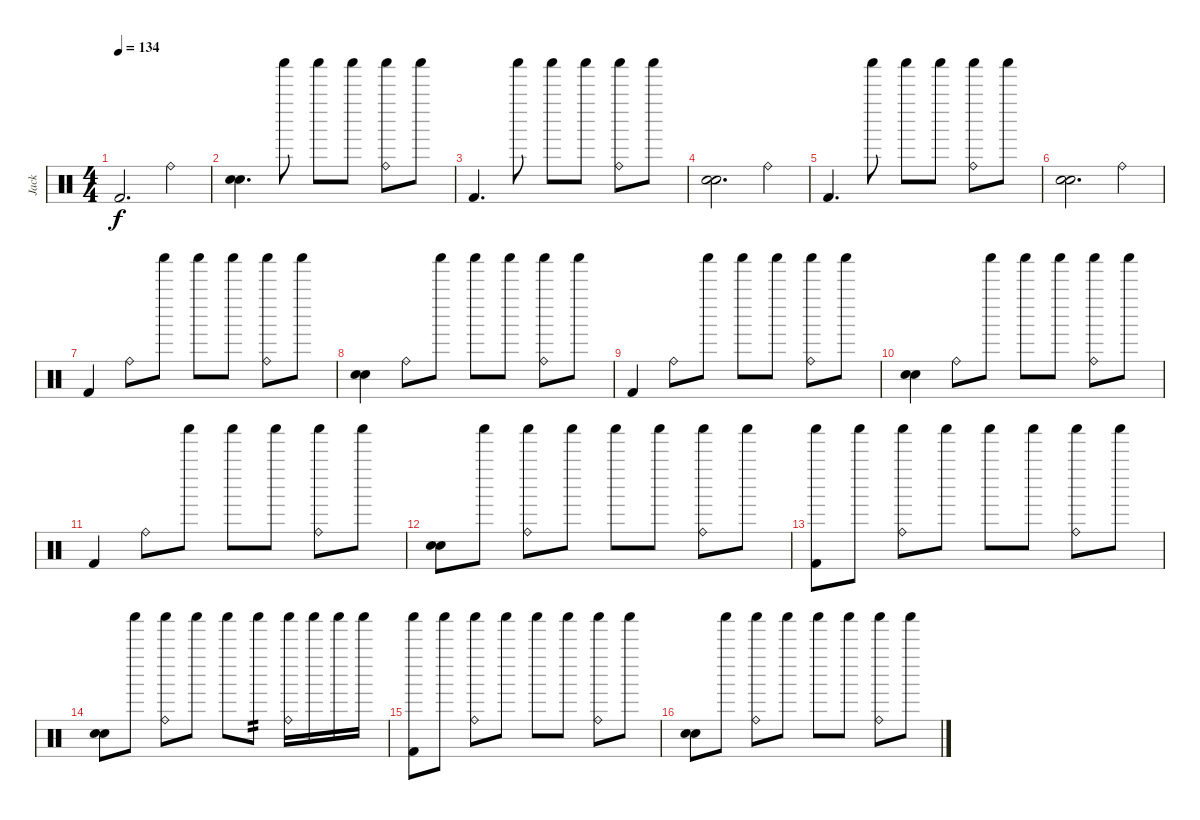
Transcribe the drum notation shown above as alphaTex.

\track ("Jack" "Jack") {instrument percussion}
\staff {score}
\articulation defaults
\ts (4 4)
\tempo 134
\clef neutral
\ks c "Kick (hit) 2".2{d dy f} "Ride (bell)".4
|
("Electric Snare (hit)" "Hand Clap (hit)").4{d} "Shaker (hit)".8 "Shaker (hit)".8 "Shaker (hit)".8 ("Shaker (hit)" "Ride (bell)").8 "Shaker (hit)".8 |
"Kick (hit) 2".4{d} "Shaker (hit)".8 "Shaker (hit)".8 "Shaker (hit)".8 ("Shaker (hit)" "Ride (bell)").8 "Shaker (hit)".8 |
("Hand Clap (hit)" "Electric Snare (hit)").2{d} "Ride (bell)".4 |
"Kick (hit) 2".4{d} "Shaker (hit)".8 "Shaker (hit)".8 "Shaker (hit)".8 ("Shaker (hit)" "Ride (bell)").8 "Shaker (hit)".8 |
("Hand Clap (hit)" "Electric Snare (hit)").2{d} "Ride (bell)".4 |
"Kick (hit) 2".4 "Ride (bell)".8 "Shaker (hit)".8 "Shaker (hit)".8 "Shaker (hit)".8 ("Ride (bell)" "Shaker (hit)").8 "Shaker (hit)".8 |
("Hand Clap (hit)" "Electric Snare (hit)").4 "Ride (bell)".8 "Shaker (hit)".8 "Shaker (hit)".8 "Shaker (hit)".8 ("Ride (bell)" "Shaker (hit)").8 "Shaker (hit)".8 |
"Kick (hit) 2".4 "Ride (bell)".8 "Shaker (hit)".8 "Shaker (hit)".8 "Shaker (hit)".8 ("Ride (bell)" "Shaker (hit)").8 "Shaker (hit)".8 |
("Hand Clap (hit)" "Electric Snare (hit)").4 "Ride (bell)".8 "Shaker (hit)".8 "Shaker (hit)".8 "Shaker (hit)".8 ("Ride (bell)" "Shaker (hit)").8 "Shaker (hit)".8 |
"Kick (hit) 2".4 "Ride (bell)".8 "Shaker (hit)".8 "Shaker (hit)".8 "Shaker (hit)".8 ("Ride (bell)" "Shaker (hit)").8 "Shaker (hit)".8 |
("Hand Clap (hit)" "Electric Snare (hit)").8 "Shaker (hit)".8 ("Ride (bell)" "Shaker (hit)").8 "Shaker (hit)".8 "Shaker (hit)".8 "Shaker (hit)".8 ("Ride (bell)" "Shaker (hit)").8 "Shaker (hit)".8 |
("Shaker (hit)" "Kick (hit) 2").8 "Shaker (hit)".8 ("Ride (bell)" "Shaker (hit)").8 "Shaker (hit)".8 "Shaker (hit)".8 "Shaker (hit)".8 ("Ride (bell)" "Shaker (hit)").8 "Shaker (hit)".8 |
("Hand Clap (hit)" "Electric Snare (hit)").8 "Shaker (hit)".8 ("Ride (bell)" "Shaker (hit)").8 "Shaker (hit)".8 "Shaker (hit)".8 "Shaker (hit)".8{tp 2} ("Ride (bell)" "Shaker (hit)").16 "Shaker (hit)".16 "Shaker (hit)".16 "Shaker (hit)".16 |
("Shaker (hit)" "Kick (hit) 2").8 "Shaker (hit)".8 ("Ride (bell)" "Shaker (hit)").8 "Shaker (hit)".8 "Shaker (hit)".8 "Shaker (hit)".8 ("Ride (bell)" "Shaker (hit)").8 "Shaker (hit)".8 |
("Hand Clap (hit)" "Electric Snare (hit)").8 "Shaker (hit)".8 ("Ride (bell)" "Shaker (hit)").8 "Shaker (hit)".8 "Shaker (hit)".8 "Shaker (hit)".8 ("Ride (bell)" "Shaker (hit)").8 "Shaker (hit)".8
